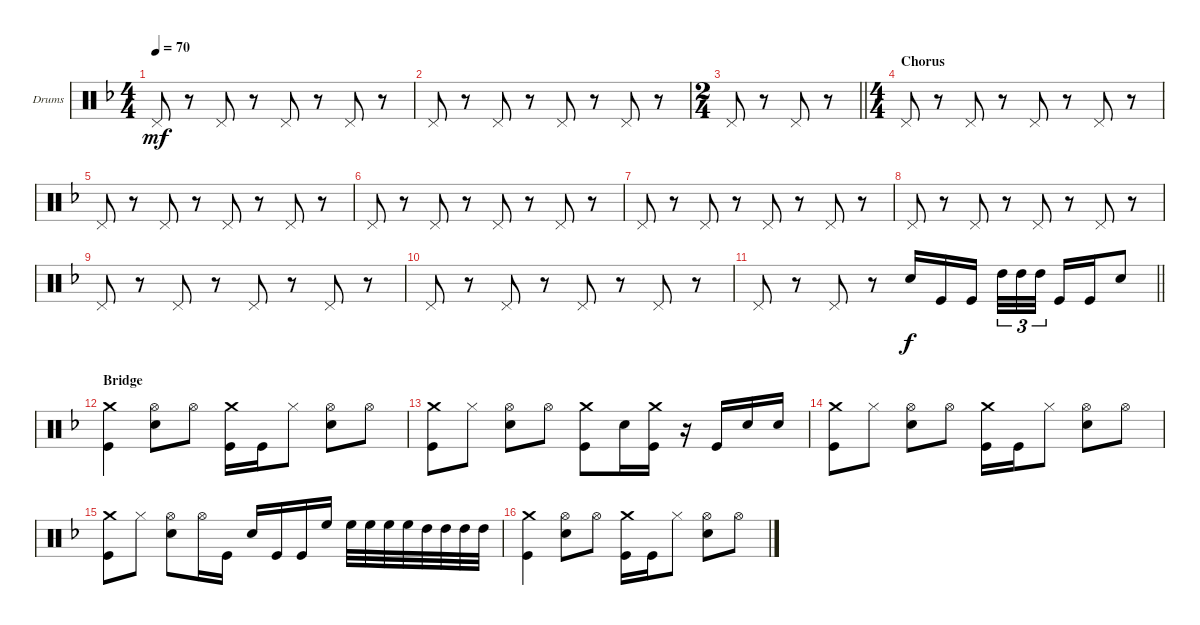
\bracketExtendMode groupsimilarinstruments
\firstSystemTrackNameOrientation horizontal
\otherSystemsTrackNameOrientation horizontal
\track ("Барабаны" "Drums") {instrument percussion}
\staff {score}
\articulation defaults
\ts (4 4)
\tempo 70
\clef neutral
\ks dminor "Pedal Hi-Hat (hit)".8{dy mf}
r.8 "Pedal Hi-Hat (hit)".8 r.8 "Pedal Hi-Hat (hit)".8 r.8 "Pedal Hi-Hat (hit)".8 r.8 |
"Pedal Hi-Hat (hit)".8 r.8 "Pedal Hi-Hat (hit)".8 r.8 "Pedal Hi-Hat (hit)".8 r.8 "Pedal Hi-Hat (hit)".8 r.8 |
\ts (2 4)
\beaming (8 2 2)
\barLineRight lightlight "Pedal Hi-Hat (hit)".8
r.8 "Pedal Hi-Hat (hit)".8 r.8 |
\ts (4 4)
\beaming (8 2 2 2 2)
\section ("" "Chorus")
"Pedal Hi-Hat (hit)".8 r.8 "Pedal Hi-Hat (hit)".8 r.8 "Pedal Hi-Hat (hit)".8 r.8 "Pedal Hi-Hat (hit)".8 r.8 |
"Pedal Hi-Hat (hit)".8 r.8 "Pedal Hi-Hat (hit)".8 r.8 "Pedal Hi-Hat (hit)".8 r.8 "Pedal Hi-Hat (hit)".8 r.8 |
"Pedal Hi-Hat (hit)".8 r.8 "Pedal Hi-Hat (hit)".8 r.8 "Pedal Hi-Hat (hit)".8 r.8 "Pedal Hi-Hat (hit)".8 r.8 |
"Pedal Hi-Hat (hit)".8 r.8 "Pedal Hi-Hat (hit)".8 r.8 "Pedal Hi-Hat (hit)".8 r.8 "Pedal Hi-Hat (hit)".8 r.8 |
"Pedal Hi-Hat (hit)".8 r.8 "Pedal Hi-Hat (hit)".8 r.8 "Pedal Hi-Hat (hit)".8 r.8 "Pedal Hi-Hat (hit)".8 r.8 |
"Pedal Hi-Hat (hit)".8 r.8 "Pedal Hi-Hat (hit)".8 r.8 "Pedal Hi-Hat (hit)".8 r.8 "Pedal Hi-Hat (hit)".8 r.8 |
"Pedal Hi-Hat (hit)".8 r.8 "Pedal Hi-Hat (hit)".8 r.8 "Pedal Hi-Hat (hit)".8 r.8 "Pedal Hi-Hat (hit)".8 r.8 |
\barLineRight lightlight "Pedal Hi-Hat (hit)".8
r.8 "Pedal Hi-Hat (hit)".8 r.8 "Snare (hit) 2".16{dy f} "Kick (hit)".16 "Kick (hit)".16 "High Tom (hit)".32{tu (3 2)} "High Tom (hit)".32{tu (3 2)} "High Tom (hit)".32{tu (3 2)} "Kick (hit)".16 "Kick (hit)".16 "Snare (hit) 2".8 |
\section ("" "Bridge")
("Kick (hit)" "Crash medium (hit)").4 ("Snare (hit) 2" "Hi-Hat (open)").8 "Hi-Hat (open)".8 ("Kick (hit)" "Crash medium (hit)").16 "Kick (hit)".16 "Hi-Hat (closed)".8 ("Snare (hit) 2" "Hi-Hat (open)").8 "Hi-Hat (open)".8 |
("Kick (hit)" "Crash medium (hit)").8 "Hi-Hat (closed)".8 ("Snare (hit) 2" "Hi-Hat (open)").8 "Hi-Hat (open)".8 ("Kick (hit)" "Crash medium (hit)").8 "Snare (hit) 2".16 ("Kick (hit)" "Crash medium (hit)").16 r.16 "Kick (hit)".16 "Snare (hit) 2".16 "Snare (hit) 2".16 |
("Kick (hit)" "Crash medium (hit)").8 "Hi-Hat (closed)".8 ("Snare (hit) 2" "Hi-Hat (open)").8 "Hi-Hat (open)".8 ("Kick (hit)" "Crash medium (hit)").16 "Kick (hit)".16 "Hi-Hat (closed)".8 ("Snare (hit) 2" "Hi-Hat (open)").8 "Hi-Hat (open)".8 |
("Kick (hit)" "Crash medium (hit)").8 "Hi-Hat (closed)".8 ("Snare (hit) 2" "Hi-Hat (open)").8 "Hi-Hat (open)".16 "Kick (hit)".16 "Snare (hit) 2".16 "Kick (hit)".16 "Kick (hit)".16 "High Floor Tom (hit)".16 "High Floor Tom (hit)".32 "High Floor Tom (hit)".32 "High Floor Tom (hit)".32 "High Floor Tom (hit)".32 "High Tom (hit)".32 "High Tom (hit)".32 "High Tom (hit)".32 "High Tom (hit)".32 |
("Kick (hit)" "Crash medium (hit)").4 ("Snare (hit) 2" "Hi-Hat (open)").8 "Hi-Hat (open)".8 ("Kick (hit)" "Crash medium (hit)").16 "Kick (hit)".16 "Hi-Hat (closed)".8 ("Snare (hit) 2" "Hi-Hat (open)").8 "Hi-Hat (open)".8
